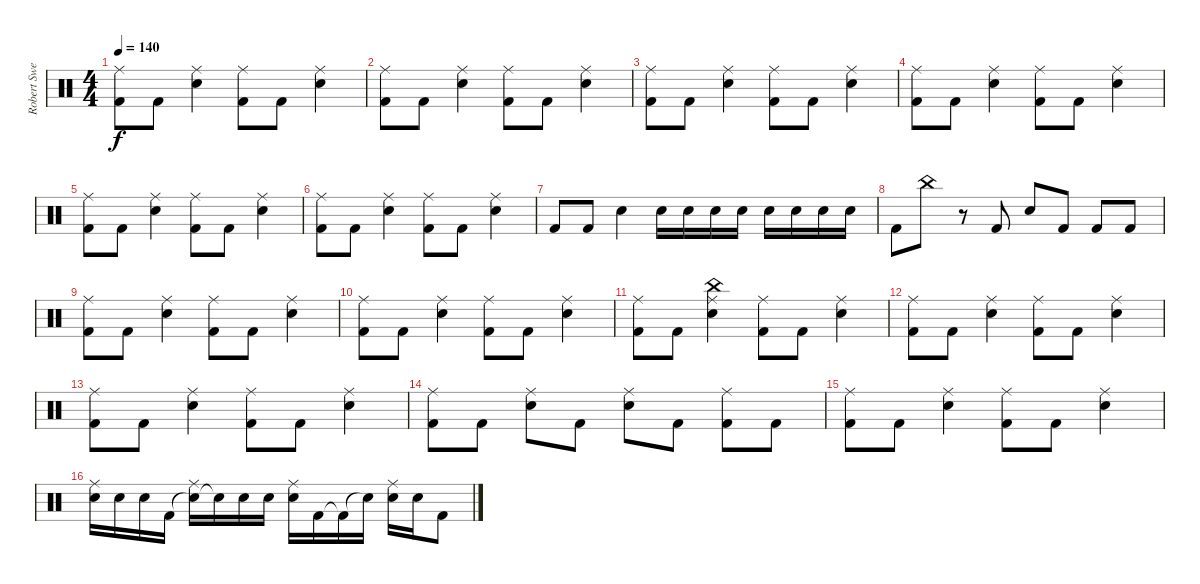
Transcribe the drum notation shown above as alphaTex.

\track ("Robert Sweet" "Robert Swe") {instrument percussion}
\staff {score}
\articulation defaults
\ts (4 4)
\tempo 140
\clef neutral
\ks c
("Kick (hit) 2" "Ride (middle)").8{dy f} "Kick (hit) 2".8 ("Electric Snare (hit)" "Ride (middle)").4 ("Kick (hit) 2" "Ride (middle)").8 "Kick (hit) 2".8 ("Electric Snare (hit)" "Ride (middle)").4 |
("Kick (hit) 2" "Ride (middle)").8 "Kick (hit) 2".8 ("Electric Snare (hit)" "Ride (middle)").4 ("Kick (hit) 2" "Ride (middle)").8 "Kick (hit) 2".8 ("Electric Snare (hit)" "Ride (middle)").4 |
("Kick (hit) 2" "Ride (middle)").8 "Kick (hit) 2".8 ("Electric Snare (hit)" "Ride (middle)").4 ("Kick (hit) 2" "Ride (middle)").8 "Kick (hit) 2".8 ("Electric Snare (hit)" "Ride (middle)").4 |
("Kick (hit) 2" "Ride (middle)").8 "Kick (hit) 2".8 ("Electric Snare (hit)" "Ride (middle)").4 ("Kick (hit) 2" "Ride (middle)").8 "Kick (hit) 2".8 ("Electric Snare (hit)" "Ride (middle)").4 |
("Kick (hit) 2" "Ride (middle)").8 "Kick (hit) 2".8 ("Electric Snare (hit)" "Ride (middle)").4 ("Kick (hit) 2" "Ride (middle)").8 "Kick (hit) 2".8 ("Electric Snare (hit)" "Ride (middle)").4 |
("Kick (hit) 2" "Ride (middle)").8 "Kick (hit) 2".8 ("Electric Snare (hit)" "Ride (middle)").4 ("Kick (hit) 2" "Ride (middle)").8 "Kick (hit) 2".8 ("Electric Snare (hit)" "Ride (middle)").4 |
"Kick (hit) 2".8 "Kick (hit) 2".8 "Electric Snare (hit)".4 "Electric Snare (hit)".16 "Electric Snare (hit)".16 "Electric Snare (hit)".16 "Electric Snare (hit)".16 "Electric Snare (hit)".16 "Electric Snare (hit)".16 "Electric Snare (hit)".16 "Electric Snare (hit)".16 |
"Kick (hit) 2".8 "China (hit)".8 r.8 "Kick (hit) 2".8 "Electric Snare (hit)".8 "Kick (hit) 2".8 "Kick (hit) 2".8 "Kick (hit) 2".8 |
("Kick (hit) 2" "Ride (middle)").8 "Kick (hit) 2".8 ("Electric Snare (hit)" "Ride (middle)").4 ("Kick (hit) 2" "Ride (middle)").8 "Kick (hit) 2".8 ("Electric Snare (hit)" "Ride (middle)").4 |
("Kick (hit) 2" "Ride (middle)").8 "Kick (hit) 2".8 ("Electric Snare (hit)" "Ride (middle)").4 ("Kick (hit) 2" "Ride (middle)").8 "Kick (hit) 2".8 ("Electric Snare (hit)" "Ride (middle)").4 |
("Kick (hit) 2" "Ride (middle)").8 "Kick (hit) 2".8 ("Electric Snare (hit)" "China (hit)" "Ride (middle)").4 ("Kick (hit) 2" "Ride (middle)").8 "Kick (hit) 2".8 ("Electric Snare (hit)" "Ride (middle)").4 |
("Kick (hit) 2" "Ride (middle)").8 "Kick (hit) 2".8 ("Electric Snare (hit)" "Ride (middle)").4 ("Kick (hit) 2" "Ride (middle)").8 "Kick (hit) 2".8 ("Electric Snare (hit)" "Ride (middle)").4 |
("Kick (hit) 2" "Ride (middle)").8 "Kick (hit) 2".8 ("Electric Snare (hit)" "Ride (middle)").4 ("Kick (hit) 2" "Ride (middle)").8 "Kick (hit) 2".8 ("Electric Snare (hit)" "Ride (middle)").4 |
("Kick (hit) 2" "Ride (middle)").8 "Kick (hit) 2".8 ("Electric Snare (hit)" "Ride (middle)").8 "Kick (hit) 2".8 ("Electric Snare (hit)" "Ride (middle)").8 "Kick (hit) 2".8 ("Kick (hit) 2" "Ride (middle)").8 "Kick (hit) 2".8 |
("Kick (hit) 2" "Ride (middle)").8 "Kick (hit) 2".8 ("Electric Snare (hit)" "Ride (middle)").4 ("Kick (hit) 2" "Ride (middle)").8 "Kick (hit) 2".8 ("Electric Snare (hit)" "Ride (middle)").4 |
("Electric Snare (hit)" "Ride (middle)").16 "Electric Snare (hit)".16 "Electric Snare (hit)".16 "Kick (hit) 2".16 ("Electric Snare (hit)"{t} "Ride (middle)").16 "Electric Snare (hit)"{t}.16 "Electric Snare (hit)".16 "Electric Snare (hit)".16 ("Electric Snare (hit)" "Ride (middle)").16 "Kick (hit) 2".16 "Kick (hit) 2"{t}.16 "Electric Snare (hit)"{t}.16 ("Electric Snare (hit)" "Ride (middle)").16 "Electric Snare (hit)".16 "Kick (hit) 2".8
